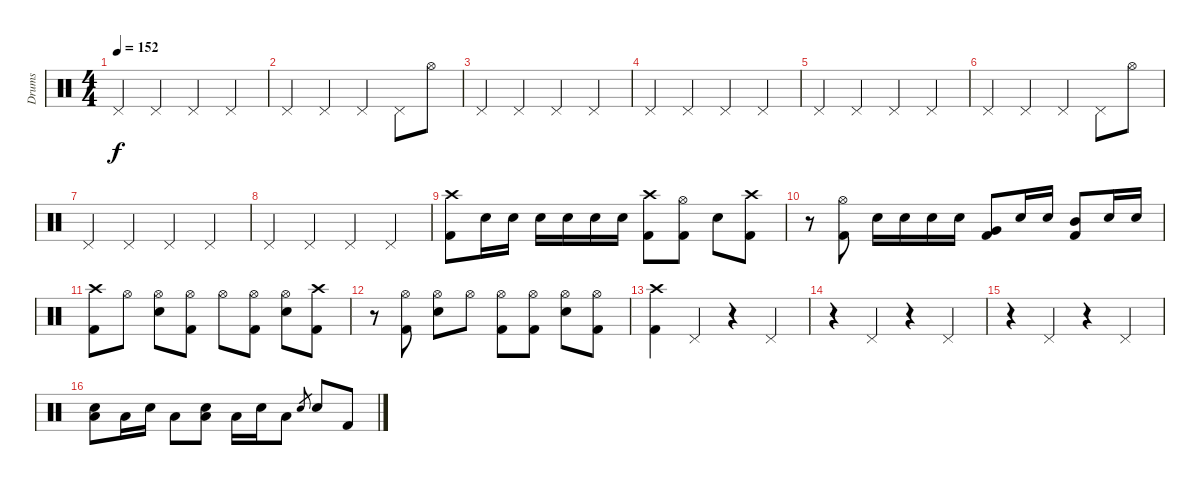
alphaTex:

\track ("Drums" "Drums") {instrument percussion}
\staff {score}
\articulation defaults
\ts (4 4)
\tempo 152
\clef neutral
\ks c "Pedal Hi-Hat (hit)".4{dy f} "Pedal Hi-Hat (hit)".4 "Pedal Hi-Hat (hit)".4 "Pedal Hi-Hat (hit)".4
|
"Pedal Hi-Hat (hit)".4 "Pedal Hi-Hat (hit)".4 "Pedal Hi-Hat (hit)".4 "Pedal Hi-Hat (hit)".8 "Hi-Hat (open)".8 |
"Pedal Hi-Hat (hit)".4 "Pedal Hi-Hat (hit)".4 "Pedal Hi-Hat (hit)".4 "Pedal Hi-Hat (hit)".4 |
"Pedal Hi-Hat (hit)".4 "Pedal Hi-Hat (hit)".4 "Pedal Hi-Hat (hit)".4 "Pedal Hi-Hat (hit)".4 |
"Pedal Hi-Hat (hit)".4 "Pedal Hi-Hat (hit)".4 "Pedal Hi-Hat (hit)".4 "Pedal Hi-Hat (hit)".4 |
"Pedal Hi-Hat (hit)".4 "Pedal Hi-Hat (hit)".4 "Pedal Hi-Hat (hit)".4 "Pedal Hi-Hat (hit)".8 "Hi-Hat (open)".8 |
"Pedal Hi-Hat (hit)".4 "Pedal Hi-Hat (hit)".4 "Pedal Hi-Hat (hit)".4 "Pedal Hi-Hat (hit)".4 |
"Pedal Hi-Hat (hit)".4 "Pedal Hi-Hat (hit)".4 "Pedal Hi-Hat (hit)".4 "Pedal Hi-Hat (hit)".4 |
("Crash high (hit)" "Kick (hit) 2").8 "Electric Snare (hit)".16 "Electric Snare (hit)".16 "Electric Snare (hit)".16 "Electric Snare (hit)".16 "Electric Snare (hit)".16 "Electric Snare (hit)".16 ("Crash high (hit)" "Kick (hit) 2").8 ("Hi-Hat (open)" "Kick (hit) 2").8 "Electric Snare (hit)".8 ("Crash high (hit)" "Kick (hit) 2").8 |
r.8 ("Hi-Hat (open)" "Kick (hit) 2").8 "Electric Snare (hit)".16 "Electric Snare (hit)".16 "Electric Snare (hit)".16 "Electric Snare (hit)".16 ("Very Low Tom (hit)" "Kick (hit) 2").8 "Electric Snare (hit)".16 "Electric Snare (hit)".16 ("Mid Tom (hit)" "Kick (hit) 2").8 "Electric Snare (hit)".16 "Electric Snare (hit)".16 |
("Crash high (hit)" "Kick (hit) 2").8 "Hi-Hat (open)".8 ("Hi-Hat (open)" "Electric Snare (hit)").8 ("Hi-Hat (open)" "Kick (hit) 2").8 "Hi-Hat (open)".8 ("Hi-Hat (open)" "Kick (hit) 2").8 ("Hi-Hat (open)" "Electric Snare (hit)").8 ("Crash high (hit)" "Kick (hit) 2").8 |
r.8 ("Hi-Hat (open)" "Kick (hit) 2").8 ("Hi-Hat (open)" "Electric Snare (hit)").8 "Hi-Hat (open)".8 ("Hi-Hat (open)" "Kick (hit) 2").8 ("Hi-Hat (open)" "Kick (hit) 2").8 ("Hi-Hat (open)" "Electric Snare (hit)").8 ("Hi-Hat (open)" "Kick (hit) 2").8 |
("Crash high (hit)" "Kick (hit) 2").4 "Pedal Hi-Hat (hit)".4 r.4 "Pedal Hi-Hat (hit)".4 |
r.4 "Pedal Hi-Hat (hit)".4 r.4 "Pedal Hi-Hat (hit)".4 |
r.4 "Pedal Hi-Hat (hit)".4 r.4 "Pedal Hi-Hat (hit)".4 |
("Electric Snare (hit)" "Low Floor Tom (hit)").8 "Low Floor Tom (hit)".16 "Electric Snare (hit)".16 "Low Floor Tom (hit)".8 ("Electric Snare (hit)" "Low Floor Tom (hit)").8 "Low Floor Tom (hit)".16 "Electric Snare (hit)".16 "Low Floor Tom (hit)".8 "Electric Snare (hit)".8{gr} "Electric Snare (hit)".8 "Kick (hit) 2".8
